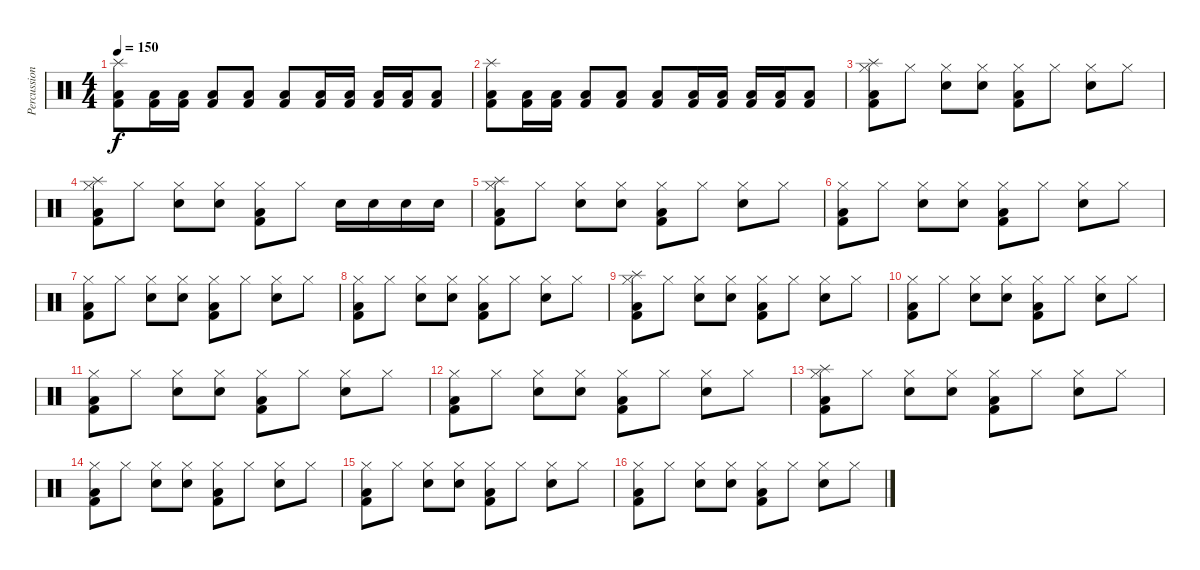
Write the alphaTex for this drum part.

\track ("Percussions" "Percussion") {instrument percussion}
\staff {score}
\articulation defaults
\ts (4 4)
\tempo 150
\clef neutral
\ks c
("Splash (hit)" "Kick (hit) 2" "Low Floor Tom (hit)").8{dy f} ("Kick (hit) 2" "Low Floor Tom (hit)").16 ("Kick (hit) 2" "Low Floor Tom (hit)").16 ("Kick (hit) 2" "Low Floor Tom (hit)").8 ("Kick (hit) 2" "Low Floor Tom (hit)").8 ("Kick (hit) 2" "Low Floor Tom (hit)").8 ("Kick (hit) 2" "Low Floor Tom (hit)").16 ("Kick (hit) 2" "Low Floor Tom (hit)").16 ("Kick (hit) 2" "Low Floor Tom (hit)").16 ("Kick (hit) 2" "Low Floor Tom (hit)").16 ("Kick (hit) 2" "Low Floor Tom (hit)").8 |
("Splash (hit)" "Kick (hit) 2" "Low Floor Tom (hit)").8 ("Kick (hit) 2" "Low Floor Tom (hit)").16 ("Kick (hit) 2" "Low Floor Tom (hit)").16 ("Kick (hit) 2" "Low Floor Tom (hit)").8 ("Kick (hit) 2" "Low Floor Tom (hit)").8 ("Kick (hit) 2" "Low Floor Tom (hit)").8 ("Kick (hit) 2" "Low Floor Tom (hit)").16 ("Kick (hit) 2" "Low Floor Tom (hit)").16 ("Kick (hit) 2" "Low Floor Tom (hit)").16 ("Kick (hit) 2" "Low Floor Tom (hit)").16 ("Kick (hit) 2" "Low Floor Tom (hit)").8 |
("Splash (hit)" "Low Floor Tom (hit)" "Kick (hit) 2" "Hi-Hat (closed)").8 "Hi-Hat (closed)".8 ("Electric Snare (hit)" "Hi-Hat (closed)").8 ("Electric Snare (hit)" "Hi-Hat (closed)").8 ("Low Floor Tom (hit)" "Kick (hit) 2" "Hi-Hat (closed)").8 "Hi-Hat (closed)".8 ("Electric Snare (hit)" "Hi-Hat (closed)").8 "Hi-Hat (closed)".8 |
("Splash (hit)" "Low Floor Tom (hit)" "Kick (hit) 2" "Hi-Hat (closed)").8 "Hi-Hat (closed)".8 ("Electric Snare (hit)" "Hi-Hat (closed)").8 ("Electric Snare (hit)" "Hi-Hat (closed)").8 ("Low Floor Tom (hit)" "Kick (hit) 2" "Hi-Hat (closed)").8 "Hi-Hat (closed)".8 "Electric Snare (hit)".16 "Electric Snare (hit)".16 "Electric Snare (hit)".16 "Electric Snare (hit)".16 |
("Splash (hit)" "Low Floor Tom (hit)" "Kick (hit) 2" "Hi-Hat (closed)").8 "Hi-Hat (closed)".8 ("Electric Snare (hit)" "Hi-Hat (closed)").8 ("Electric Snare (hit)" "Hi-Hat (closed)").8 ("Low Floor Tom (hit)" "Kick (hit) 2" "Hi-Hat (closed)").8 "Hi-Hat (closed)".8 ("Electric Snare (hit)" "Hi-Hat (closed)").8 "Hi-Hat (closed)".8 |
("Low Floor Tom (hit)" "Kick (hit) 2" "Hi-Hat (closed)").8 "Hi-Hat (closed)".8 ("Electric Snare (hit)" "Hi-Hat (closed)").8 ("Electric Snare (hit)" "Hi-Hat (closed)").8 ("Low Floor Tom (hit)" "Kick (hit) 2" "Hi-Hat (closed)").8 "Hi-Hat (closed)".8 ("Electric Snare (hit)" "Hi-Hat (closed)").8 "Hi-Hat (closed)".8 |
("Low Floor Tom (hit)" "Kick (hit) 2" "Hi-Hat (closed)").8 "Hi-Hat (closed)".8 ("Electric Snare (hit)" "Hi-Hat (closed)").8 ("Electric Snare (hit)" "Hi-Hat (closed)").8 ("Low Floor Tom (hit)" "Kick (hit) 2" "Hi-Hat (closed)").8 "Hi-Hat (closed)".8 ("Electric Snare (hit)" "Hi-Hat (closed)").8 "Hi-Hat (closed)".8 |
("Low Floor Tom (hit)" "Kick (hit) 2" "Hi-Hat (closed)").8 "Hi-Hat (closed)".8 ("Electric Snare (hit)" "Hi-Hat (closed)").8 ("Electric Snare (hit)" "Hi-Hat (closed)").8 ("Low Floor Tom (hit)" "Kick (hit) 2" "Hi-Hat (closed)").8 "Hi-Hat (closed)".8 ("Electric Snare (hit)" "Hi-Hat (closed)").8 "Hi-Hat (closed)".8 |
("Splash (hit)" "Low Floor Tom (hit)" "Kick (hit) 2" "Hi-Hat (closed)").8 "Hi-Hat (closed)".8 ("Electric Snare (hit)" "Hi-Hat (closed)").8 ("Electric Snare (hit)" "Hi-Hat (closed)").8 ("Low Floor Tom (hit)" "Kick (hit) 2" "Hi-Hat (closed)").8 "Hi-Hat (closed)".8 ("Electric Snare (hit)" "Hi-Hat (closed)").8 "Hi-Hat (closed)".8 |
("Low Floor Tom (hit)" "Kick (hit) 2" "Hi-Hat (closed)").8 "Hi-Hat (closed)".8 ("Electric Snare (hit)" "Hi-Hat (closed)").8 ("Electric Snare (hit)" "Hi-Hat (closed)").8 ("Low Floor Tom (hit)" "Kick (hit) 2" "Hi-Hat (closed)").8 "Hi-Hat (closed)".8 ("Electric Snare (hit)" "Hi-Hat (closed)").8 "Hi-Hat (closed)".8 |
("Low Floor Tom (hit)" "Kick (hit) 2" "Hi-Hat (closed)").8 "Hi-Hat (closed)".8 ("Electric Snare (hit)" "Hi-Hat (closed)").8 ("Electric Snare (hit)" "Hi-Hat (closed)").8 ("Low Floor Tom (hit)" "Kick (hit) 2" "Hi-Hat (closed)").8 "Hi-Hat (closed)".8 ("Electric Snare (hit)" "Hi-Hat (closed)").8 "Hi-Hat (closed)".8 |
("Low Floor Tom (hit)" "Kick (hit) 2" "Hi-Hat (closed)").8 "Hi-Hat (closed)".8 ("Electric Snare (hit)" "Hi-Hat (closed)").8 ("Electric Snare (hit)" "Hi-Hat (closed)").8 ("Low Floor Tom (hit)" "Kick (hit) 2" "Hi-Hat (closed)").8 "Hi-Hat (closed)".8 ("Electric Snare (hit)" "Hi-Hat (closed)").8 "Hi-Hat (closed)".8 |
("Splash (hit)" "Low Floor Tom (hit)" "Kick (hit) 2" "Hi-Hat (closed)").8 "Hi-Hat (closed)".8 ("Electric Snare (hit)" "Hi-Hat (closed)").8 ("Electric Snare (hit)" "Hi-Hat (closed)").8 ("Low Floor Tom (hit)" "Kick (hit) 2" "Hi-Hat (closed)").8 "Hi-Hat (closed)".8 ("Electric Snare (hit)" "Hi-Hat (closed)").8 "Hi-Hat (closed)".8 |
("Low Floor Tom (hit)" "Kick (hit) 2" "Hi-Hat (closed)").8 "Hi-Hat (closed)".8 ("Electric Snare (hit)" "Hi-Hat (closed)").8 ("Electric Snare (hit)" "Hi-Hat (closed)").8 ("Low Floor Tom (hit)" "Kick (hit) 2" "Hi-Hat (closed)").8 "Hi-Hat (closed)".8 ("Electric Snare (hit)" "Hi-Hat (closed)").8 "Hi-Hat (closed)".8 |
("Low Floor Tom (hit)" "Kick (hit) 2" "Hi-Hat (closed)").8 "Hi-Hat (closed)".8 ("Electric Snare (hit)" "Hi-Hat (closed)").8 ("Electric Snare (hit)" "Hi-Hat (closed)").8 ("Low Floor Tom (hit)" "Kick (hit) 2" "Hi-Hat (closed)").8 "Hi-Hat (closed)".8 ("Electric Snare (hit)" "Hi-Hat (closed)").8 "Hi-Hat (closed)".8 |
("Low Floor Tom (hit)" "Kick (hit) 2" "Hi-Hat (closed)").8 "Hi-Hat (closed)".8 ("Electric Snare (hit)" "Hi-Hat (closed)").8 ("Electric Snare (hit)" "Hi-Hat (closed)").8 ("Low Floor Tom (hit)" "Kick (hit) 2" "Hi-Hat (closed)").8 "Hi-Hat (closed)".8 ("Electric Snare (hit)" "Hi-Hat (closed)").8 "Hi-Hat (closed)".8
